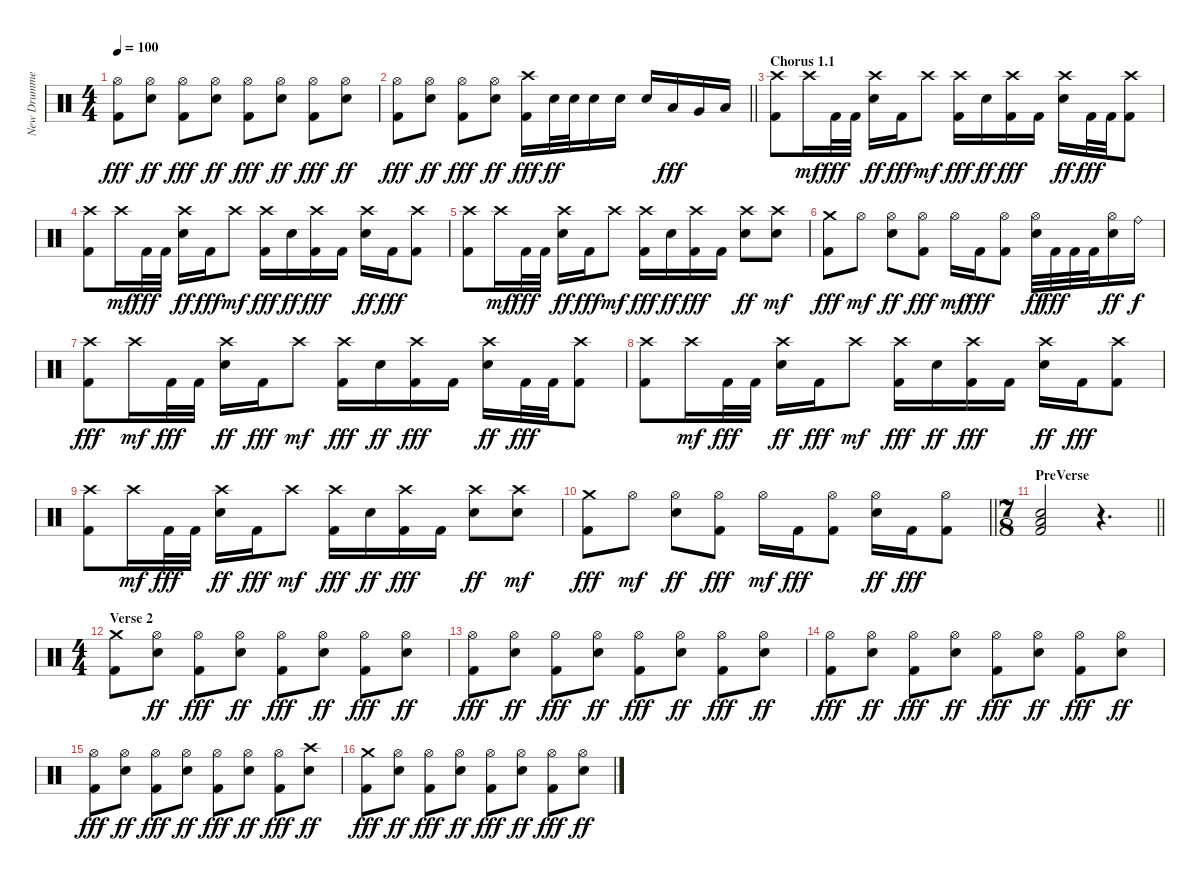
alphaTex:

\track ("New Drummer" "New Drumme") {instrument percussion}
\staff {score}
\articulation defaults
\ts (4 4)
\tempo 100
\clef neutral
\ks c
("Hi-Hat (open)" "Kick (hit) 2").8{dy fff} ("Hi-Hat (open)" "Electric Snare (hit)").8{dy ff} ("Hi-Hat (open)" "Kick (hit) 2").8{dy fff} ("Hi-Hat (open)" "Electric Snare (hit)").8{dy ff} ("Hi-Hat (open)" "Kick (hit) 2").8{dy fff} ("Hi-Hat (open)" "Electric Snare (hit)").8{dy ff} ("Hi-Hat (open)" "Kick (hit) 2").8{dy fff} ("Hi-Hat (open)" "Electric Snare (hit)").8{dy ff} |
\barLineRight lightlight
("Hi-Hat (open)" "Kick (hit) 2").8{dy fff} ("Hi-Hat (open)" "Electric Snare (hit)").8{dy ff} ("Hi-Hat (open)" "Kick (hit) 2").8{dy fff} ("Hi-Hat (open)" "Electric Snare (hit)").8{dy ff} ("Crash high (hit)" "Kick (hit) 2").16{dy fff} "Electric Snare (hit)".32{dy ff} "Electric Snare (hit)".32 "Electric Snare (hit)".16 "Electric Snare (hit)".16 "Electric Snare (hit)".16 "Low Tom (hit)".16{dy fff} "Very Low Tom (hit)".16 "Low Floor Tom (hit)".16 |
\section ("" "Chorus 1.1")
("Crash high (hit)" "Kick (hit) 2").8 "Crash high (hit)".16{dy mf} "Kick (hit) 2".32{dy fff} "Kick (hit) 2".32 ("Crash high (hit)" "Electric Snare (hit)").16{dy ff} "Kick (hit) 2".16{dy fff} "Crash high (hit)".8{dy mf} ("Crash high (hit)" "Kick (hit) 2").16{dy fff} "Electric Snare (hit)".16{dy ff} ("Crash high (hit)" "Kick (hit) 2").16{dy fff} "Kick (hit) 2".16 ("Crash high (hit)" "Electric Snare (hit)").16{dy ff} "Kick (hit) 2".32{dy fff} "Kick (hit) 2".32 ("Crash high (hit)" "Kick (hit) 2").8 |
("Crash high (hit)" "Kick (hit) 2").8 "Crash high (hit)".16{dy mf} "Kick (hit) 2".32{dy fff} "Kick (hit) 2".32 ("Crash high (hit)" "Electric Snare (hit)").16{dy ff} "Kick (hit) 2".16{dy fff} "Crash high (hit)".8{dy mf} ("Crash high (hit)" "Kick (hit) 2").16{dy fff} "Electric Snare (hit)".16{dy ff} ("Crash high (hit)" "Kick (hit) 2").16{dy fff} "Kick (hit) 2".16 ("Crash high (hit)" "Electric Snare (hit)").16{dy ff} "Kick (hit) 2".16{dy fff} ("Crash high (hit)" "Kick (hit) 2").8 |
("Crash high (hit)" "Kick (hit) 2").8 "Crash high (hit)".16{dy mf} "Kick (hit) 2".32{dy fff} "Kick (hit) 2".32 ("Crash high (hit)" "Electric Snare (hit)").16{dy ff} "Kick (hit) 2".16{dy fff} "Crash high (hit)".8{dy mf} ("Crash high (hit)" "Kick (hit) 2").16{dy fff} "Electric Snare (hit)".16{dy ff} ("Crash high (hit)" "Kick (hit) 2").16{dy fff} "Kick (hit) 2".16 ("Crash high (hit)" "Electric Snare (hit)").8{dy ff} ("Crash high (hit)" "Electric Snare (hit)").8{dy mf} |
("Crash medium (hit)" "Kick (hit) 2").8{dy fff} "Hi-Hat (open)".8{dy mf} ("Hi-Hat (open)" "Electric Snare (hit)").8{dy ff} ("Hi-Hat (open)" "Kick (hit) 2").8{dy fff} "Hi-Hat (open)".16{dy mf} "Kick (hit) 2".16{dy fff} ("Hi-Hat (open)" "Kick (hit) 2").8 ("Hi-Hat (open)" "Electric Snare (hit)").32{dy ff} "Kick (hit) 2".32{dy fff} "Kick (hit) 2".32 "Kick (hit) 2".32 ("Hi-Hat (open)" "Electric Snare (hit)").16{dy ff} "Ride (bell)".16{dy f} |
("Crash high (hit)" "Kick (hit) 2").8{dy fff} "Crash high (hit)".16{dy mf} "Kick (hit) 2".32{dy fff} "Kick (hit) 2".32 ("Crash high (hit)" "Electric Snare (hit)").16{dy ff} "Kick (hit) 2".16{dy fff} "Crash high (hit)".8{dy mf} ("Crash high (hit)" "Kick (hit) 2").16{dy fff} "Electric Snare (hit)".16{dy ff} ("Crash high (hit)" "Kick (hit) 2").16{dy fff} "Kick (hit) 2".16 ("Crash high (hit)" "Electric Snare (hit)").16{dy ff} "Kick (hit) 2".32{dy fff} "Kick (hit) 2".32 ("Crash high (hit)" "Kick (hit) 2").8 |
("Crash high (hit)" "Kick (hit) 2").8 "Crash high (hit)".16{dy mf} "Kick (hit) 2".32{dy fff} "Kick (hit) 2".32 ("Crash high (hit)" "Electric Snare (hit)").16{dy ff} "Kick (hit) 2".16{dy fff} "Crash high (hit)".8{dy mf} ("Crash high (hit)" "Kick (hit) 2").16{dy fff} "Electric Snare (hit)".16{dy ff} ("Crash high (hit)" "Kick (hit) 2").16{dy fff} "Kick (hit) 2".16 ("Crash high (hit)" "Electric Snare (hit)").16{dy ff} "Kick (hit) 2".16{dy fff} ("Crash high (hit)" "Kick (hit) 2").8 |
("Crash high (hit)" "Kick (hit) 2").8 "Crash high (hit)".16{dy mf} "Kick (hit) 2".32{dy fff} "Kick (hit) 2".32 ("Crash high (hit)" "Electric Snare (hit)").16{dy ff} "Kick (hit) 2".16{dy fff} "Crash high (hit)".8{dy mf} ("Crash high (hit)" "Kick (hit) 2").16{dy fff} "Electric Snare (hit)".16{dy ff} ("Crash high (hit)" "Kick (hit) 2").16{dy fff} "Kick (hit) 2".16 ("Crash high (hit)" "Electric Snare (hit)").8{dy ff} ("Crash high (hit)" "Electric Snare (hit)").8{dy mf} |
\barLineRight lightlight
("Crash medium (hit)" "Kick (hit) 2").8{dy fff} "Hi-Hat (open)".8{dy mf} ("Hi-Hat (open)" "Electric Snare (hit)").8{dy ff} ("Hi-Hat (open)" "Kick (hit) 2").8{dy fff} "Hi-Hat (open)".16{dy mf} "Kick (hit) 2".16{dy fff} ("Hi-Hat (open)" "Kick (hit) 2").8 ("Hi-Hat (open)" "Electric Snare (hit)").16{dy ff} "Kick (hit) 2".16{dy fff} ("Hi-Hat (open)" "Kick (hit) 2").8 |
\ts (7 8)
\section ("" "PreVerse")
\barLineRight lightlight
("Electric Snare (hit)" "Low Floor Tom (hit)" "Kick (hit) 2").2 r.4{d} |
\ts (4 4)
\section ("" "Verse 2")
("Crash medium (hit)" "Kick (hit) 2").8 ("Hi-Hat (open)" "Electric Snare (hit)").8{dy ff} ("Hi-Hat (open)" "Kick (hit) 2").8{dy fff} ("Hi-Hat (open)" "Electric Snare (hit)").8{dy ff} ("Hi-Hat (open)" "Kick (hit) 2").8{dy fff} ("Hi-Hat (open)" "Electric Snare (hit)").8{dy ff} ("Hi-Hat (open)" "Kick (hit) 2").8{dy fff} ("Hi-Hat (open)" "Electric Snare (hit)").8{dy ff} |
("Hi-Hat (open)" "Kick (hit) 2").8{dy fff} ("Hi-Hat (open)" "Electric Snare (hit)").8{dy ff} ("Hi-Hat (open)" "Kick (hit) 2").8{dy fff} ("Hi-Hat (open)" "Electric Snare (hit)").8{dy ff} ("Hi-Hat (open)" "Kick (hit) 2").8{dy fff} ("Hi-Hat (open)" "Electric Snare (hit)").8{dy ff} ("Hi-Hat (open)" "Kick (hit) 2").8{dy fff} ("Hi-Hat (open)" "Electric Snare (hit)").8{dy ff} |
("Hi-Hat (open)" "Kick (hit) 2").8{dy fff} ("Hi-Hat (open)" "Electric Snare (hit)").8{dy ff} ("Hi-Hat (open)" "Kick (hit) 2").8{dy fff} ("Hi-Hat (open)" "Electric Snare (hit)").8{dy ff} ("Hi-Hat (open)" "Kick (hit) 2").8{dy fff} ("Hi-Hat (open)" "Electric Snare (hit)").8{dy ff} ("Hi-Hat (open)" "Kick (hit) 2").8{dy fff} ("Hi-Hat (open)" "Electric Snare (hit)").8{dy ff} |
("Hi-Hat (open)" "Kick (hit) 2").8{dy fff} ("Hi-Hat (open)" "Electric Snare (hit)").8{dy ff} ("Hi-Hat (open)" "Kick (hit) 2").8{dy fff} ("Hi-Hat (open)" "Electric Snare (hit)").8{dy ff} ("Hi-Hat (open)" "Kick (hit) 2").8{dy fff} ("Hi-Hat (open)" "Electric Snare (hit)").8{dy ff} ("Hi-Hat (open)" "Kick (hit) 2").8{dy fff} ("Crash high (hit)" "Electric Snare (hit)").8{dy ff} |
("Crash medium (hit)" "Kick (hit) 2").8{dy fff} ("Hi-Hat (open)" "Electric Snare (hit)").8{dy ff} ("Hi-Hat (open)" "Kick (hit) 2").8{dy fff} ("Hi-Hat (open)" "Electric Snare (hit)").8{dy ff} ("Hi-Hat (open)" "Kick (hit) 2").8{dy fff} ("Hi-Hat (open)" "Electric Snare (hit)").8{dy ff} ("Hi-Hat (open)" "Kick (hit) 2").8{dy fff} ("Hi-Hat (open)" "Electric Snare (hit)").8{dy ff}
